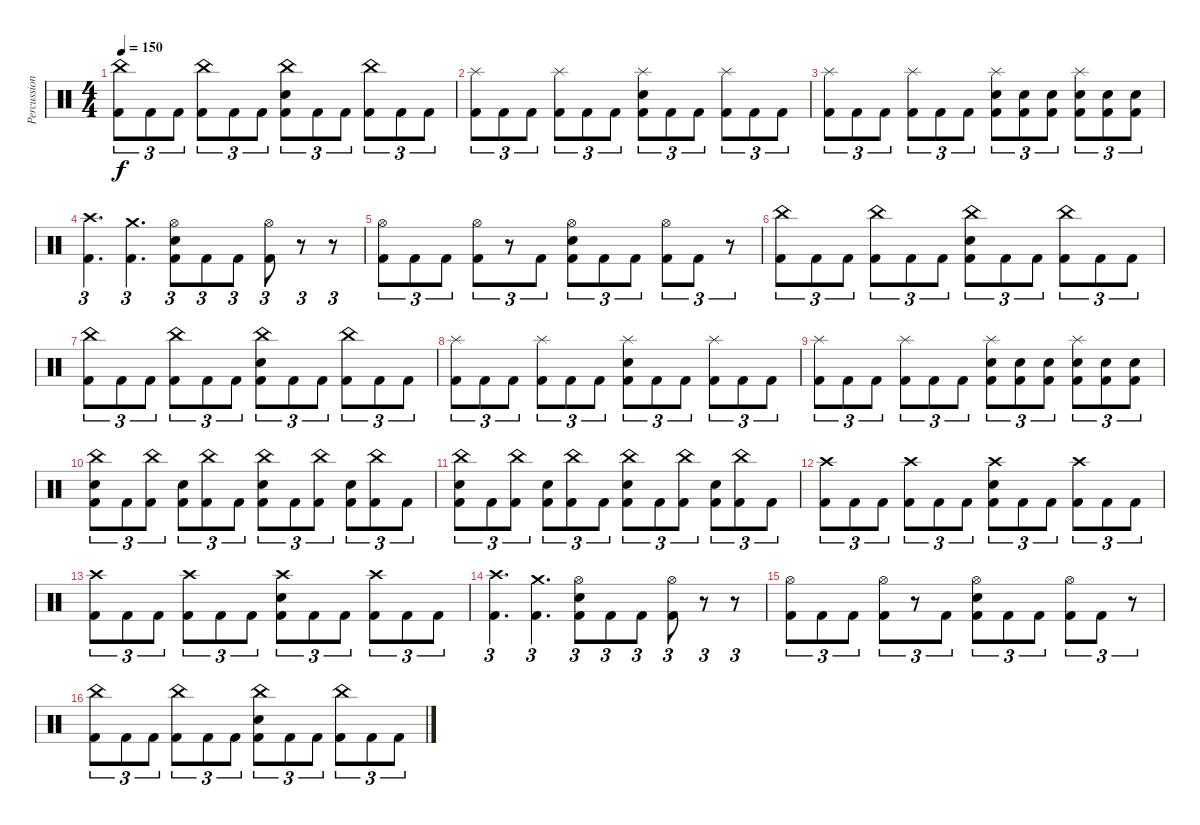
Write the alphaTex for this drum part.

\track ("Percussion" "Percussion") {instrument percussion}
\staff {score}
\articulation defaults
\ts (4 4)
\tempo 150
\clef neutral
\ks c
("China (hit)" "Kick (hit) 2").8{tu (3 2) dy f} "Kick (hit) 2".8{tu (3 2)} "Kick (hit) 2".8{tu (3 2)} ("China (hit)" "Kick (hit) 2").8{tu (3 2)} "Kick (hit) 2".8{tu (3 2)} "Kick (hit) 2".8{tu (3 2)} ("China (hit)" "Snare (hit) 2" "Kick (hit) 2").8{tu (3 2)} "Kick (hit) 2".8{tu (3 2)} "Kick (hit) 2".8{tu (3 2)} ("China (hit)" "Kick (hit) 2").8{tu (3 2)} "Kick (hit) 2".8{tu (3 2)} "Kick (hit) 2".8{tu (3 2)} |
("Splash (hit)" "Kick (hit) 2").8{tu (3 2)} "Kick (hit) 2".8{tu (3 2)} "Kick (hit) 2".8{tu (3 2)} ("Splash (hit)" "Kick (hit) 2").8{tu (3 2)} "Kick (hit) 2".8{tu (3 2)} "Kick (hit) 2".8{tu (3 2)} ("Splash (hit)" "Snare (hit) 2" "Kick (hit) 2").8{tu (3 2)} "Kick (hit) 2".8{tu (3 2)} "Kick (hit) 2".8{tu (3 2)} ("Splash (hit)" "Kick (hit) 2").8{tu (3 2)} "Kick (hit) 2".8{tu (3 2)} "Kick (hit) 2".8{tu (3 2)} |
("Splash (hit)" "Kick (hit) 2").8{tu (3 2)} "Kick (hit) 2".8{tu (3 2)} "Kick (hit) 2".8{tu (3 2)} ("Splash (hit)" "Kick (hit) 2").8{tu (3 2)} "Kick (hit) 2".8{tu (3 2)} "Kick (hit) 2".8{tu (3 2)} ("Splash (hit)" "Snare (hit) 2" "Kick (hit) 2").8{tu (3 2)} ("Snare (hit) 2" "Kick (hit) 2").8{tu (3 2)} ("Snare (hit) 2" "Kick (hit) 2").8{tu (3 2)} ("Splash (hit)" "Snare (hit) 2" "Kick (hit) 2").8{tu (3 2)} ("Snare (hit) 2" "Kick (hit) 2").8{tu (3 2)} ("Snare (hit) 2" "Kick (hit) 2").8{tu (3 2)} |
("Crash high (hit)" "Kick (hit) 2").4{d tu (3 2)} ("Crash medium (hit)" "Kick (hit) 2").4{d tu (3 2)} ("Hi-Hat (open)" "Snare (hit) 2" "Kick (hit) 2").8{tu (3 2)} "Kick (hit) 2".8{tu (3 2)} "Kick (hit) 2".8{tu (3 2)} ("Hi-Hat (open)" "Kick (hit) 2").8{tu (3 2)} r.8{tu (3 2)} r.8{tu (3 2)} |
("Hi-Hat (open)" "Kick (hit) 2").8{tu (3 2)} "Kick (hit) 2".8{tu (3 2)} "Kick (hit) 2".8{tu (3 2)} ("Hi-Hat (open)" "Kick (hit) 2").8{tu (3 2)} r.8{tu (3 2)} "Kick (hit) 2".8{tu (3 2)} ("Hi-Hat (open)" "Snare (hit) 2" "Kick (hit) 2").8{tu (3 2)} "Kick (hit) 2".8{tu (3 2)} "Kick (hit) 2".8{tu (3 2)} ("Hi-Hat (open)" "Kick (hit) 2").8{tu (3 2)} "Kick (hit) 2".8{tu (3 2)} r.8{tu (3 2)} |
("China (hit)" "Kick (hit) 2").8{tu (3 2)} "Kick (hit) 2".8{tu (3 2)} "Kick (hit) 2".8{tu (3 2)} ("China (hit)" "Kick (hit) 2").8{tu (3 2)} "Kick (hit) 2".8{tu (3 2)} "Kick (hit) 2".8{tu (3 2)} ("China (hit)" "Snare (hit) 2" "Kick (hit) 2").8{tu (3 2)} "Kick (hit) 2".8{tu (3 2)} "Kick (hit) 2".8{tu (3 2)} ("China (hit)" "Kick (hit) 2").8{tu (3 2)} "Kick (hit) 2".8{tu (3 2)} "Kick (hit) 2".8{tu (3 2)} |
("China (hit)" "Kick (hit) 2").8{tu (3 2)} "Kick (hit) 2".8{tu (3 2)} "Kick (hit) 2".8{tu (3 2)} ("China (hit)" "Kick (hit) 2").8{tu (3 2)} "Kick (hit) 2".8{tu (3 2)} "Kick (hit) 2".8{tu (3 2)} ("China (hit)" "Snare (hit) 2" "Kick (hit) 2").8{tu (3 2)} "Kick (hit) 2".8{tu (3 2)} "Kick (hit) 2".8{tu (3 2)} ("China (hit)" "Kick (hit) 2").8{tu (3 2)} "Kick (hit) 2".8{tu (3 2)} "Kick (hit) 2".8{tu (3 2)} |
("Splash (hit)" "Kick (hit) 2").8{tu (3 2)} "Kick (hit) 2".8{tu (3 2)} "Kick (hit) 2".8{tu (3 2)} ("Splash (hit)" "Kick (hit) 2").8{tu (3 2)} "Kick (hit) 2".8{tu (3 2)} "Kick (hit) 2".8{tu (3 2)} ("Splash (hit)" "Snare (hit) 2" "Kick (hit) 2").8{tu (3 2)} "Kick (hit) 2".8{tu (3 2)} "Kick (hit) 2".8{tu (3 2)} ("Splash (hit)" "Kick (hit) 2").8{tu (3 2)} "Kick (hit) 2".8{tu (3 2)} "Kick (hit) 2".8{tu (3 2)} |
("Splash (hit)" "Kick (hit) 2").8{tu (3 2)} "Kick (hit) 2".8{tu (3 2)} "Kick (hit) 2".8{tu (3 2)} ("Splash (hit)" "Kick (hit) 2").8{tu (3 2)} "Kick (hit) 2".8{tu (3 2)} "Kick (hit) 2".8{tu (3 2)} ("Splash (hit)" "Snare (hit) 2" "Kick (hit) 2").8{tu (3 2)} ("Snare (hit) 2" "Kick (hit) 2").8{tu (3 2)} ("Snare (hit) 2" "Kick (hit) 2").8{tu (3 2)} ("Splash (hit)" "Snare (hit) 2" "Kick (hit) 2").8{tu (3 2)} ("Snare (hit) 2" "Kick (hit) 2").8{tu (3 2)} ("Snare (hit) 2" "Kick (hit) 2").8{tu (3 2)} |
("Snare (hit) 2" "China (hit)" "Kick (hit) 2").8{tu (3 2)} "Kick (hit) 2".8{tu (3 2)} ("China (hit)" "Kick (hit) 2").8{tu (3 2)} ("Snare (hit) 2" "Kick (hit) 2").8{tu (3 2)} ("China (hit)" "Kick (hit) 2").8{tu (3 2)} "Kick (hit) 2".8{tu (3 2)} ("Snare (hit) 2" "China (hit)" "Kick (hit) 2").8{tu (3 2)} "Kick (hit) 2".8{tu (3 2)} ("China (hit)" "Kick (hit) 2").8{tu (3 2)} ("Snare (hit) 2" "Kick (hit) 2").8{tu (3 2)} ("China (hit)" "Kick (hit) 2").8{tu (3 2)} "Kick (hit) 2".8{tu (3 2)} |
("Snare (hit) 2" "China (hit)" "Kick (hit) 2").8{tu (3 2)} "Kick (hit) 2".8{tu (3 2)} ("China (hit)" "Kick (hit) 2").8{tu (3 2)} ("Snare (hit) 2" "Kick (hit) 2").8{tu (3 2)} ("China (hit)" "Kick (hit) 2").8{tu (3 2)} "Kick (hit) 2".8{tu (3 2)} ("Snare (hit) 2" "China (hit)" "Kick (hit) 2").8{tu (3 2)} "Kick (hit) 2".8{tu (3 2)} ("China (hit)" "Kick (hit) 2").8{tu (3 2)} ("Snare (hit) 2" "Kick (hit) 2").8{tu (3 2)} ("China (hit)" "Kick (hit) 2").8{tu (3 2)} "Kick (hit) 2".8{tu (3 2)} |
("Crash high (hit)" "Kick (hit) 2").8{tu (3 2)} "Kick (hit) 2".8{tu (3 2)} "Kick (hit) 2".8{tu (3 2)} ("Crash high (hit)" "Kick (hit) 2").8{tu (3 2)} "Kick (hit) 2".8{tu (3 2)} "Kick (hit) 2".8{tu (3 2)} ("Crash high (hit)" "Snare (hit) 2" "Kick (hit) 2").8{tu (3 2)} "Kick (hit) 2".8{tu (3 2)} "Kick (hit) 2".8{tu (3 2)} ("Crash high (hit)" "Kick (hit) 2").8{tu (3 2)} "Kick (hit) 2".8{tu (3 2)} "Kick (hit) 2".8{tu (3 2)} |
("Crash high (hit)" "Kick (hit) 2").8{tu (3 2)} "Kick (hit) 2".8{tu (3 2)} "Kick (hit) 2".8{tu (3 2)} ("Crash high (hit)" "Kick (hit) 2").8{tu (3 2)} "Kick (hit) 2".8{tu (3 2)} "Kick (hit) 2".8{tu (3 2)} ("Crash high (hit)" "Snare (hit) 2" "Kick (hit) 2").8{tu (3 2)} "Kick (hit) 2".8{tu (3 2)} "Kick (hit) 2".8{tu (3 2)} ("Crash high (hit)" "Kick (hit) 2").8{tu (3 2)} "Kick (hit) 2".8{tu (3 2)} "Kick (hit) 2".8{tu (3 2)} |
("Crash high (hit)" "Kick (hit) 2").4{d tu (3 2)} ("Crash medium (hit)" "Kick (hit) 2").4{d tu (3 2)} ("Hi-Hat (open)" "Snare (hit) 2" "Kick (hit) 2").8{tu (3 2)} "Kick (hit) 2".8{tu (3 2)} "Kick (hit) 2".8{tu (3 2)} ("Hi-Hat (open)" "Kick (hit) 2").8{tu (3 2)} r.8{tu (3 2)} r.8{tu (3 2)} |
("Hi-Hat (open)" "Kick (hit) 2").8{tu (3 2)} "Kick (hit) 2".8{tu (3 2)} "Kick (hit) 2".8{tu (3 2)} ("Hi-Hat (open)" "Kick (hit) 2").8{tu (3 2)} r.8{tu (3 2)} "Kick (hit) 2".8{tu (3 2)} ("Hi-Hat (open)" "Snare (hit) 2" "Kick (hit) 2").8{tu (3 2)} "Kick (hit) 2".8{tu (3 2)} "Kick (hit) 2".8{tu (3 2)} ("Hi-Hat (open)" "Kick (hit) 2").8{tu (3 2)} "Kick (hit) 2".8{tu (3 2)} r.8{tu (3 2)} |
("China (hit)" "Kick (hit) 2").8{tu (3 2)} "Kick (hit) 2".8{tu (3 2)} "Kick (hit) 2".8{tu (3 2)} ("China (hit)" "Kick (hit) 2").8{tu (3 2)} "Kick (hit) 2".8{tu (3 2)} "Kick (hit) 2".8{tu (3 2)} ("China (hit)" "Snare (hit) 2" "Kick (hit) 2").8{tu (3 2)} "Kick (hit) 2".8{tu (3 2)} "Kick (hit) 2".8{tu (3 2)} ("China (hit)" "Kick (hit) 2").8{tu (3 2)} "Kick (hit) 2".8{tu (3 2)} "Kick (hit) 2".8{tu (3 2)}
